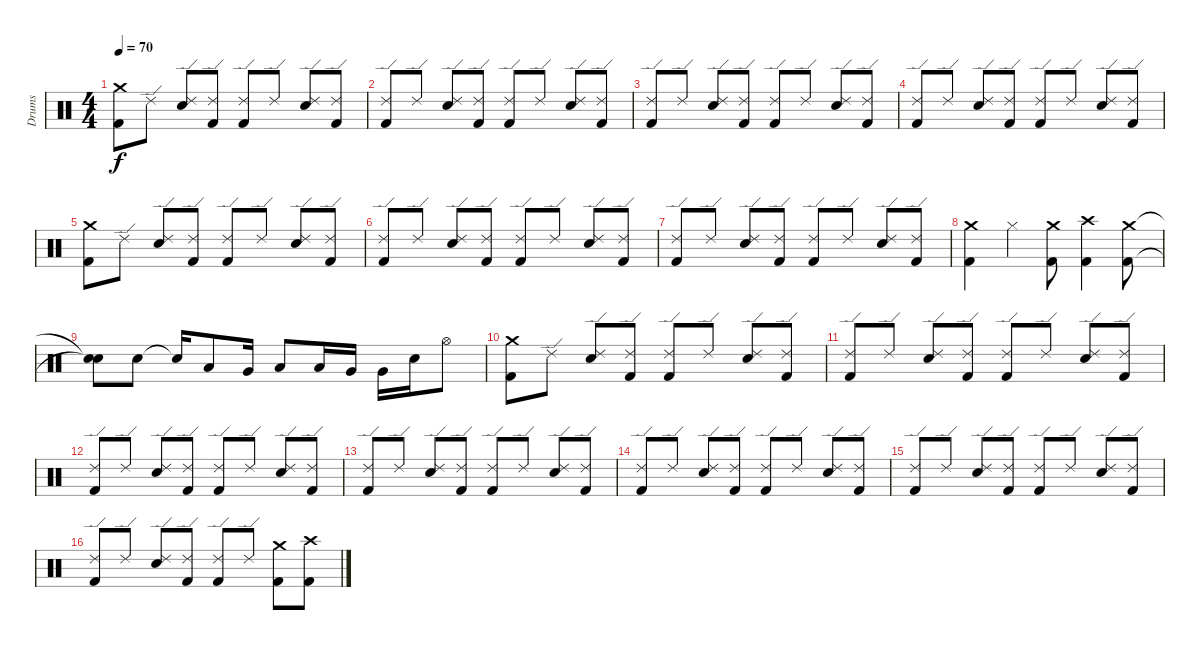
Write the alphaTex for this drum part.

\track ("Drums" "Drums") {instrument percussion}
\staff {score}
\articulation defaults
\ts (4 4)
\tempo 70
\clef neutral
\ks c
("Crash medium (hit)" "Kick (hit) 2").8{dy f} "Ride (edge) 2".8 ("Ride (edge) 2" "Electric Snare (hit)").8 ("Ride (edge) 2" "Kick (hit) 2").8 ("Ride (edge) 2" "Kick (hit) 2").8 "Ride (edge) 2".8 ("Ride (edge) 2" "Electric Snare (hit)").8 ("Ride (edge) 2" "Kick (hit) 2").8 |
("Ride (edge) 2" "Kick (hit) 2").8 "Ride (edge) 2".8 ("Ride (edge) 2" "Electric Snare (hit)").8 ("Ride (edge) 2" "Kick (hit) 2").8 ("Ride (edge) 2" "Kick (hit) 2").8 "Ride (edge) 2".8 ("Ride (edge) 2" "Electric Snare (hit)").8 ("Ride (edge) 2" "Kick (hit) 2").8 |
("Ride (edge) 2" "Kick (hit) 2").8 "Ride (edge) 2".8 ("Ride (edge) 2" "Electric Snare (hit)").8 ("Ride (edge) 2" "Kick (hit) 2").8 ("Ride (edge) 2" "Kick (hit) 2").8 "Ride (edge) 2".8 ("Ride (edge) 2" "Electric Snare (hit)").8 ("Ride (edge) 2" "Kick (hit) 2").8 |
("Ride (edge) 2" "Kick (hit) 2").8 "Ride (edge) 2".8 ("Ride (edge) 2" "Electric Snare (hit)").8 ("Ride (edge) 2" "Kick (hit) 2").8 ("Ride (edge) 2" "Kick (hit) 2").8 "Ride (edge) 2".8 ("Ride (edge) 2" "Electric Snare (hit)").8 ("Ride (edge) 2" "Kick (hit) 2").8 |
("Crash medium (hit)" "Kick (hit) 2").8 "Ride (edge) 2".8 ("Ride (edge) 2" "Electric Snare (hit)").8 ("Ride (edge) 2" "Kick (hit) 2").8 ("Ride (edge) 2" "Kick (hit) 2").8 "Ride (edge) 2".8 ("Ride (edge) 2" "Electric Snare (hit)").8 ("Ride (edge) 2" "Kick (hit) 2").8 |
("Ride (edge) 2" "Kick (hit) 2").8 "Ride (edge) 2".8 ("Ride (edge) 2" "Electric Snare (hit)").8 ("Ride (edge) 2" "Kick (hit) 2").8 ("Ride (edge) 2" "Kick (hit) 2").8 "Ride (edge) 2".8 ("Ride (edge) 2" "Electric Snare (hit)").8 ("Ride (edge) 2" "Kick (hit) 2").8 |
("Ride (edge) 2" "Kick (hit) 2").8 "Ride (edge) 2".8 ("Ride (edge) 2" "Electric Snare (hit)").8 ("Ride (edge) 2" "Kick (hit) 2").8 ("Ride (edge) 2" "Kick (hit) 2").8 "Ride (edge) 2".8 ("Ride (edge) 2" "Electric Snare (hit)").8 ("Ride (edge) 2" "Kick (hit) 2").8 |
("Crash medium (hit)" "Kick (hit) 2").4 "Hi-Hat (closed)".4 ("Crash medium (hit)" "Kick (hit) 2").8 ("Crash high (hit)" "Kick (hit) 2").4 ("Crash medium (hit)" "Kick (hit) 2").8 |
("Snare (hit)"{t} "Snare (hit)"{t}).8 "Electric Snare (hit)".8 "Electric Snare (hit)"{t}.16 "Low Tom (hit)".8 "Very Low Tom (hit)".16 "Low Tom (hit)".8 "Low Tom (hit)".16 "Very Low Tom (hit)".16 "Very Low Tom (hit)".16 "Electric Snare (hit)".16 "Hi-Hat (open)".8 |
("Crash medium (hit)" "Kick (hit) 2").8 "Ride (edge) 2".8 ("Ride (edge) 2" "Electric Snare (hit)").8 ("Ride (edge) 2" "Kick (hit) 2").8 ("Ride (edge) 2" "Kick (hit) 2").8 "Ride (edge) 2".8 ("Ride (edge) 2" "Electric Snare (hit)").8 ("Ride (edge) 2" "Kick (hit) 2").8 |
("Ride (edge) 2" "Kick (hit) 2").8 "Ride (edge) 2".8 ("Ride (edge) 2" "Electric Snare (hit)").8 ("Ride (edge) 2" "Kick (hit) 2").8 ("Ride (edge) 2" "Kick (hit) 2").8 "Ride (edge) 2".8 ("Ride (edge) 2" "Electric Snare (hit)").8 ("Ride (edge) 2" "Kick (hit) 2").8 |
("Ride (edge) 2" "Kick (hit) 2").8 "Ride (edge) 2".8 ("Ride (edge) 2" "Electric Snare (hit)").8 ("Ride (edge) 2" "Kick (hit) 2").8 ("Ride (edge) 2" "Kick (hit) 2").8 "Ride (edge) 2".8 ("Ride (edge) 2" "Electric Snare (hit)").8 ("Ride (edge) 2" "Kick (hit) 2").8 |
("Ride (edge) 2" "Kick (hit) 2").8 "Ride (edge) 2".8 ("Ride (edge) 2" "Electric Snare (hit)").8 ("Ride (edge) 2" "Kick (hit) 2").8 ("Ride (edge) 2" "Kick (hit) 2").8 "Ride (edge) 2".8 ("Ride (edge) 2" "Electric Snare (hit)").8 ("Ride (edge) 2" "Kick (hit) 2").8 |
("Ride (edge) 2" "Kick (hit) 2").8 "Ride (edge) 2".8 ("Ride (edge) 2" "Electric Snare (hit)").8 ("Ride (edge) 2" "Kick (hit) 2").8 ("Ride (edge) 2" "Kick (hit) 2").8 "Ride (edge) 2".8 ("Ride (edge) 2" "Electric Snare (hit)").8 ("Ride (edge) 2" "Kick (hit) 2").8 |
("Ride (edge) 2" "Kick (hit) 2").8 "Ride (edge) 2".8 ("Ride (edge) 2" "Electric Snare (hit)").8 ("Ride (edge) 2" "Kick (hit) 2").8 ("Ride (edge) 2" "Kick (hit) 2").8 "Ride (edge) 2".8 ("Ride (edge) 2" "Electric Snare (hit)").8 ("Ride (edge) 2" "Kick (hit) 2").8 |
("Ride (edge) 2" "Kick (hit) 2").8 "Ride (edge) 2".8 ("Ride (edge) 2" "Electric Snare (hit)").8 ("Ride (edge) 2" "Kick (hit) 2").8 ("Ride (edge) 2" "Kick (hit) 2").8 "Ride (edge) 2".8 ("Crash medium (hit)" "Kick (hit) 2").8 ("Crash high (hit)" "Kick (hit) 2").8
